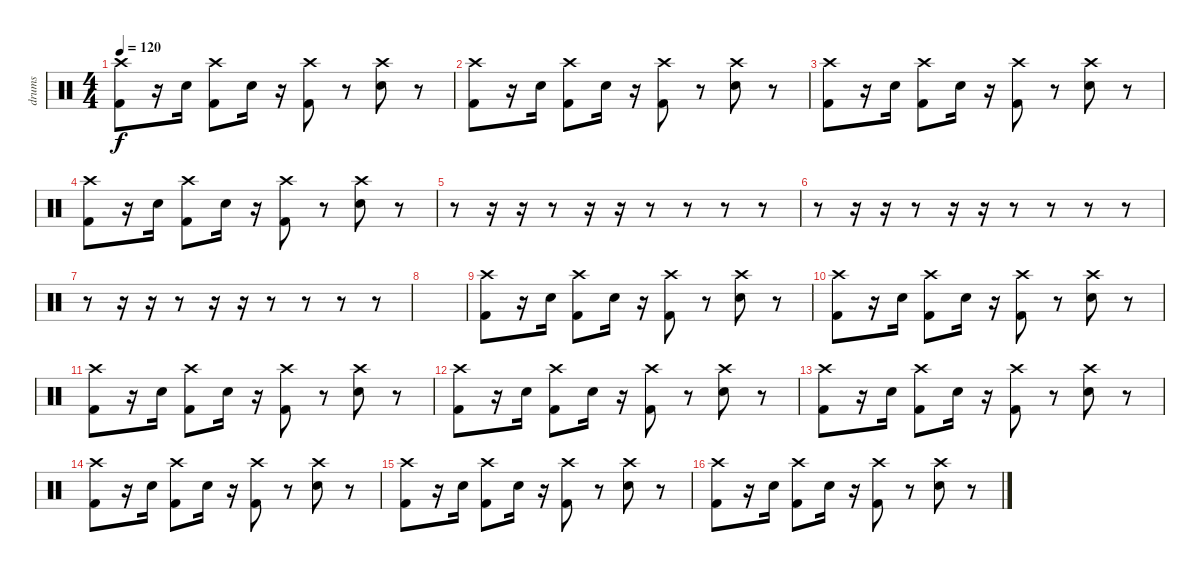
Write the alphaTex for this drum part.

\track ("drums" "drums") {instrument percussion}
\staff {score}
\articulation defaults
\ts (4 4)
\tempo 120
\clef neutral
\ks c
("Crash high (hit)" "Kick (hit) 2").8{dy f} r.16 "Snare (hit) 2".16 ("Crash high (hit)" "Kick (hit) 2").8 "Snare (hit) 2".16 r.16 ("Crash high (hit)" "Kick (hit) 2").8 r.8 ("Crash high (hit)" "Snare (hit) 2").8 r.8 |
("Crash high (hit)" "Kick (hit) 2").8 r.16 "Snare (hit) 2".16 ("Crash high (hit)" "Kick (hit) 2").8 "Snare (hit) 2".16 r.16 ("Crash high (hit)" "Kick (hit) 2").8 r.8 ("Crash high (hit)" "Snare (hit) 2").8 r.8 |
("Crash high (hit)" "Kick (hit) 2").8 r.16 "Snare (hit) 2".16 ("Crash high (hit)" "Kick (hit) 2").8 "Snare (hit) 2".16 r.16 ("Crash high (hit)" "Kick (hit) 2").8 r.8 ("Crash high (hit)" "Snare (hit) 2").8 r.8 |
("Crash high (hit)" "Kick (hit) 2").8 r.16 "Snare (hit) 2".16 ("Crash high (hit)" "Kick (hit) 2").8 "Snare (hit) 2".16 r.16 ("Crash high (hit)" "Kick (hit) 2").8 r.8 ("Crash high (hit)" "Snare (hit) 2").8 r.8 |
r.8 r.16 r.16 r.8 r.16 r.16 r.8 r.8 r.8 r.8 |
r.8 r.16 r.16 r.8 r.16 r.16 r.8 r.8 r.8 r.8 |
r.8 r.16 r.16 r.8 r.16 r.16 r.8 r.8 r.8 r.8 |
|
("Crash high (hit)" "Kick (hit) 2").8 r.16 "Snare (hit) 2".16 ("Crash high (hit)" "Kick (hit) 2").8 "Snare (hit) 2".16 r.16 ("Crash high (hit)" "Kick (hit) 2").8 r.8 ("Crash high (hit)" "Snare (hit) 2").8 r.8 |
("Crash high (hit)" "Kick (hit) 2").8 r.16 "Snare (hit) 2".16 ("Crash high (hit)" "Kick (hit) 2").8 "Snare (hit) 2".16 r.16 ("Crash high (hit)" "Kick (hit) 2").8 r.8 ("Crash high (hit)" "Snare (hit) 2").8 r.8 |
("Crash high (hit)" "Kick (hit) 2").8 r.16 "Snare (hit) 2".16 ("Crash high (hit)" "Kick (hit) 2").8 "Snare (hit) 2".16 r.16 ("Crash high (hit)" "Kick (hit) 2").8 r.8 ("Crash high (hit)" "Snare (hit) 2").8 r.8 |
("Crash high (hit)" "Kick (hit) 2").8 r.16 "Snare (hit) 2".16 ("Crash high (hit)" "Kick (hit) 2").8 "Snare (hit) 2".16 r.16 ("Crash high (hit)" "Kick (hit) 2").8 r.8 ("Crash high (hit)" "Snare (hit) 2").8 r.8 |
("Crash high (hit)" "Kick (hit) 2").8 r.16 "Snare (hit) 2".16 ("Crash high (hit)" "Kick (hit) 2").8 "Snare (hit) 2".16 r.16 ("Crash high (hit)" "Kick (hit) 2").8 r.8 ("Crash high (hit)" "Snare (hit) 2").8 r.8 |
("Crash high (hit)" "Kick (hit) 2").8 r.16 "Snare (hit) 2".16 ("Crash high (hit)" "Kick (hit) 2").8 "Snare (hit) 2".16 r.16 ("Crash high (hit)" "Kick (hit) 2").8 r.8 ("Crash high (hit)" "Snare (hit) 2").8 r.8 |
("Crash high (hit)" "Kick (hit) 2").8 r.16 "Snare (hit) 2".16 ("Crash high (hit)" "Kick (hit) 2").8 "Snare (hit) 2".16 r.16 ("Crash high (hit)" "Kick (hit) 2").8 r.8 ("Crash high (hit)" "Snare (hit) 2").8 r.8 |
("Crash high (hit)" "Kick (hit) 2").8 r.16 "Snare (hit) 2".16 ("Crash high (hit)" "Kick (hit) 2").8 "Snare (hit) 2".16 r.16 ("Crash high (hit)" "Kick (hit) 2").8 r.8 ("Crash high (hit)" "Snare (hit) 2").8 r.8
